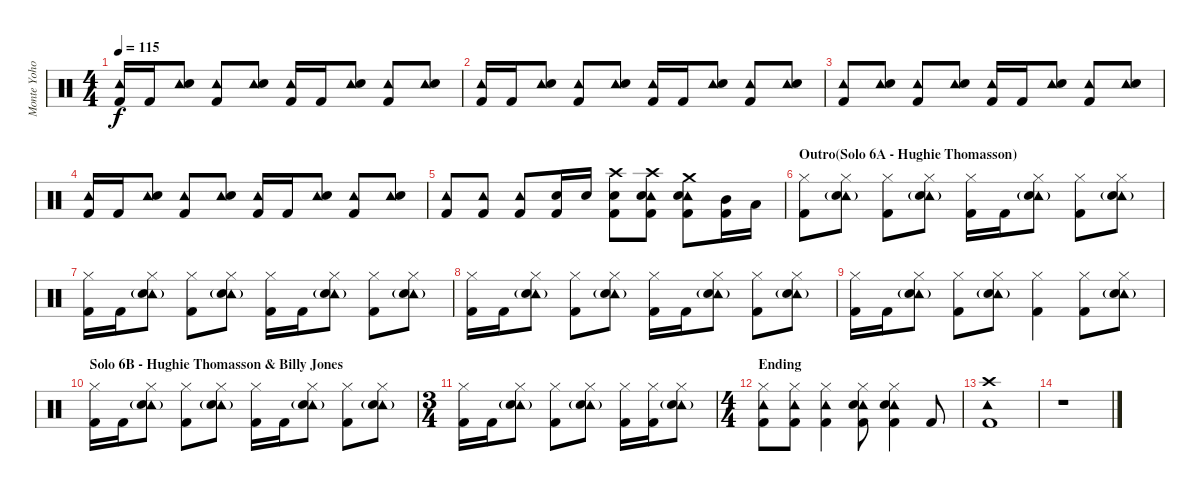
\track ("Monte Yoho - Drums" "Monte Yoho") {instrument percussion}
\staff {score}
\articulation defaults
\ts (4 4)
\tempo 115
\clef neutral
\ks c
("Tambourine (hit)" "Kick (hit) 2").16{dy f} "Kick (hit) 2".16 ("Tambourine (hit)" "Snare (hit) 2").8 ("Tambourine (hit)" "Kick (hit) 2").8 ("Tambourine (hit)" "Snare (hit) 2").8 ("Tambourine (hit)" "Kick (hit) 2").16 "Kick (hit) 2".16 ("Tambourine (hit)" "Snare (hit) 2").8 ("Tambourine (hit)" "Kick (hit) 2").8 ("Tambourine (hit)" "Snare (hit) 2").8 |
("Tambourine (hit)" "Kick (hit) 2").16 "Kick (hit) 2".16 ("Tambourine (hit)" "Snare (hit) 2").8 ("Tambourine (hit)" "Kick (hit) 2").8 ("Tambourine (hit)" "Snare (hit) 2").8 ("Tambourine (hit)" "Kick (hit) 2").16 "Kick (hit) 2".16 ("Tambourine (hit)" "Snare (hit) 2").8 ("Tambourine (hit)" "Kick (hit) 2").8 ("Tambourine (hit)" "Snare (hit) 2").8 |
("Tambourine (hit)" "Kick (hit) 2").8 ("Tambourine (hit)" "Snare (hit) 2").8 ("Tambourine (hit)" "Kick (hit) 2").8 ("Tambourine (hit)" "Snare (hit) 2").8 ("Tambourine (hit)" "Kick (hit) 2").16 "Kick (hit) 2".16 ("Tambourine (hit)" "Snare (hit) 2").8 ("Tambourine (hit)" "Kick (hit) 2").8 ("Tambourine (hit)" "Snare (hit) 2").8 |
("Tambourine (hit)" "Kick (hit) 2").16 "Kick (hit) 2".16 ("Tambourine (hit)" "Snare (hit) 2").8 ("Tambourine (hit)" "Kick (hit) 2").8 ("Tambourine (hit)" "Snare (hit) 2").8 ("Tambourine (hit)" "Kick (hit) 2").16 "Kick (hit) 2".16 ("Tambourine (hit)" "Snare (hit) 2").8 ("Tambourine (hit)" "Kick (hit) 2").8 ("Tambourine (hit)" "Snare (hit) 2").8 |
("Tambourine (hit)" "Kick (hit) 2").8 ("Tambourine (hit)" "Kick (hit) 2").8 ("Tambourine (hit)" "Kick (hit) 2").8 ("Snare (hit) 2" "Kick (hit) 2").16 "Snare (hit) 2".16 ("Crash high (hit)" "Snare (hit) 2" "Kick (hit) 2").8 ("Crash high (hit)" "Tambourine (hit)" "Snare (hit) 2" "Kick (hit) 2").8 ("Crash medium (hit)" "Tambourine (hit)" "Snare (hit) 2" "Kick (hit) 2").8 ("Mid Tom (hit)" "Kick (hit) 2").16 "Low Tom (hit)".16 |
\section ("" "Outro(Solo 6A - Hughie Thomasson)")
("Hi-Hat (closed)" "Kick (hit) 2").8 ("Hi-Hat (closed)" "Tambourine (hit)"{g} "Snare (hit) 2").8 ("Hi-Hat (closed)" "Kick (hit) 2").8 ("Hi-Hat (closed)" "Tambourine (hit)"{g} "Snare (hit) 2").8 ("Hi-Hat (closed)" "Kick (hit) 2").16 "Kick (hit) 2".16 ("Hi-Hat (closed)" "Tambourine (hit)"{g} "Snare (hit) 2").8 ("Hi-Hat (closed)" "Kick (hit) 2").8 ("Hi-Hat (closed)" "Tambourine (hit)"{g} "Snare (hit) 2").8 |
("Hi-Hat (closed)" "Kick (hit) 2").16 "Kick (hit) 2".16 ("Hi-Hat (closed)" "Tambourine (hit)"{g} "Snare (hit) 2").8 ("Hi-Hat (closed)" "Kick (hit) 2").8 ("Hi-Hat (closed)" "Tambourine (hit)"{g} "Snare (hit) 2").8 ("Hi-Hat (closed)" "Kick (hit) 2").16 "Kick (hit) 2".16 ("Hi-Hat (closed)" "Tambourine (hit)"{g} "Snare (hit) 2").8 ("Hi-Hat (closed)" "Kick (hit) 2").8 ("Hi-Hat (closed)" "Tambourine (hit)"{g} "Snare (hit) 2").8 |
("Hi-Hat (closed)" "Kick (hit) 2").16 "Kick (hit) 2".16 ("Hi-Hat (closed)" "Tambourine (hit)"{g} "Snare (hit) 2").8 ("Hi-Hat (closed)" "Kick (hit) 2").8 ("Hi-Hat (closed)" "Tambourine (hit)"{g} "Snare (hit) 2").8 ("Hi-Hat (closed)" "Kick (hit) 2").16 "Kick (hit) 2".16 ("Hi-Hat (closed)" "Tambourine (hit)"{g} "Snare (hit) 2").8 ("Hi-Hat (closed)" "Kick (hit) 2").8 ("Hi-Hat (closed)" "Tambourine (hit)"{g} "Snare (hit) 2").8 |
("Hi-Hat (closed)" "Kick (hit) 2").16 "Kick (hit) 2".16 ("Hi-Hat (closed)" "Tambourine (hit)"{g} "Snare (hit) 2").8 ("Hi-Hat (closed)" "Kick (hit) 2").8 ("Hi-Hat (closed)" "Tambourine (hit)"{g} "Snare (hit) 2").8 ("Hi-Hat (closed)" "Kick (hit) 2").4 ("Hi-Hat (closed)" "Kick (hit) 2").8 ("Hi-Hat (closed)" "Tambourine (hit)"{g} "Snare (hit) 2").8 |
\section ("" "Solo 6B - Hughie Thomasson & Billy Jones")
("Hi-Hat (closed)" "Kick (hit) 2").16 "Kick (hit) 2".16 ("Hi-Hat (closed)" "Tambourine (hit)"{g} "Snare (hit) 2").8 ("Hi-Hat (closed)" "Kick (hit) 2").8 ("Hi-Hat (closed)" "Tambourine (hit)"{g} "Snare (hit) 2").8 ("Hi-Hat (closed)" "Kick (hit) 2").16 "Kick (hit) 2".16 ("Hi-Hat (closed)" "Tambourine (hit)"{g} "Snare (hit) 2").8 ("Hi-Hat (closed)" "Kick (hit) 2").8 ("Hi-Hat (closed)" "Tambourine (hit)"{g} "Snare (hit) 2").8 |
\ts (3 4)
("Hi-Hat (closed)" "Kick (hit) 2").16 "Kick (hit) 2".16 ("Hi-Hat (closed)" "Tambourine (hit)"{g} "Snare (hit) 2").8 ("Hi-Hat (closed)" "Kick (hit) 2").8 ("Hi-Hat (closed)" "Tambourine (hit)"{g} "Snare (hit) 2").8 ("Hi-Hat (closed)" "Kick (hit) 2").16 ("Hi-Hat (closed)" "Kick (hit) 2").16 ("Hi-Hat (closed)" "Tambourine (hit)"{g} "Snare (hit) 2").8 |
\ts (4 4)
\section ("" "Ending")
("Hi-Hat (closed)" "Tambourine (hit)" "Kick (hit) 2").8 ("Hi-Hat (closed)" "Tambourine (hit)" "Kick (hit) 2").8 ("Hi-Hat (closed)" "Tambourine (hit)" "Kick (hit) 2").4 ("Hi-Hat (closed)" "Tambourine (hit)" "Snare (hit) 2" "Kick (hit) 2").8 ("Hi-Hat (closed)" "Tambourine (hit)" "Snare (hit) 2" "Kick (hit) 2").4 "Kick (hit) 2".8 |
("Crash high (hit)" "Tambourine (hit)" "Kick (hit) 2").1 |
r.1
